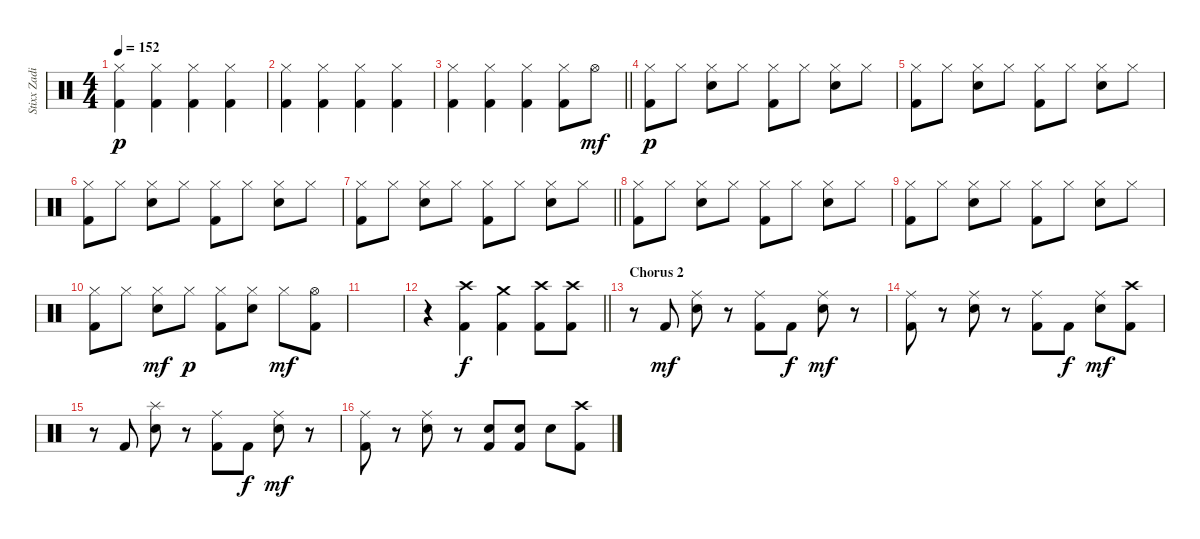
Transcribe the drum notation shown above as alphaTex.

\track ("Stixx Zadinia (Drums)" "Stixx Zadi") {instrument percussion}
\staff {score}
\articulation defaults
\ts (4 4)
\tempo 152
\clef neutral
\ks c
("Hi-Hat (closed)" "Kick (hit) 2").4{dy p} ("Hi-Hat (closed)" "Kick (hit) 2").4 ("Hi-Hat (closed)" "Kick (hit) 2").4 ("Hi-Hat (closed)" "Kick (hit) 2").4 |
("Hi-Hat (closed)" "Kick (hit) 2").4 ("Hi-Hat (closed)" "Kick (hit) 2").4 ("Hi-Hat (closed)" "Kick (hit) 2").4 ("Hi-Hat (closed)" "Kick (hit) 2").4 |
\barLineRight lightlight
("Hi-Hat (closed)" "Kick (hit) 2").4 ("Hi-Hat (closed)" "Kick (hit) 2").4 ("Hi-Hat (closed)" "Kick (hit) 2").4 ("Hi-Hat (closed)" "Kick (hit) 2").8 "Hi-Hat (open)".8{dy mf} |
\section ("" "")
("Hi-Hat (closed)" "Kick (hit) 2").8{dy p} "Hi-Hat (closed)".8 ("Hi-Hat (closed)" "Snare (hit) 2").8 "Hi-Hat (closed)".8 ("Hi-Hat (closed)" "Kick (hit) 2").8 "Hi-Hat (closed)".8 ("Hi-Hat (closed)" "Snare (hit) 2").8 "Hi-Hat (closed)".8 |
("Hi-Hat (closed)" "Kick (hit) 2").8 "Hi-Hat (closed)".8 ("Hi-Hat (closed)" "Snare (hit) 2").8 "Hi-Hat (closed)".8 ("Hi-Hat (closed)" "Kick (hit) 2").8 "Hi-Hat (closed)".8 ("Hi-Hat (closed)" "Snare (hit) 2").8 "Hi-Hat (closed)".8 |
("Hi-Hat (closed)" "Kick (hit) 2").8 "Hi-Hat (closed)".8 ("Hi-Hat (closed)" "Snare (hit) 2").8 "Hi-Hat (closed)".8 ("Hi-Hat (closed)" "Kick (hit) 2").8 "Hi-Hat (closed)".8 ("Hi-Hat (closed)" "Snare (hit) 2").8 "Hi-Hat (closed)".8 |
\barLineRight lightlight
("Hi-Hat (closed)" "Kick (hit) 2").8 "Hi-Hat (closed)".8 ("Hi-Hat (closed)" "Snare (hit) 2").8 "Hi-Hat (closed)".8 ("Hi-Hat (closed)" "Kick (hit) 2").8 "Hi-Hat (closed)".8 ("Hi-Hat (closed)" "Snare (hit) 2").8 "Hi-Hat (closed)".8 |
("Hi-Hat (closed)" "Kick (hit) 2").8 "Hi-Hat (closed)".8 ("Hi-Hat (closed)" "Snare (hit) 2").8 "Hi-Hat (closed)".8 ("Hi-Hat (closed)" "Kick (hit) 2").8 "Hi-Hat (closed)".8 ("Hi-Hat (closed)" "Snare (hit) 2").8 "Hi-Hat (closed)".8 |
("Hi-Hat (closed)" "Kick (hit) 2").8 "Hi-Hat (closed)".8 ("Hi-Hat (closed)" "Snare (hit) 2").8 "Hi-Hat (closed)".8 ("Hi-Hat (closed)" "Kick (hit) 2").8 "Hi-Hat (closed)".8 ("Hi-Hat (closed)" "Snare (hit) 2").8 "Hi-Hat (closed)".8 |
("Hi-Hat (closed)" "Kick (hit) 2").8 "Hi-Hat (closed)".8 ("Hi-Hat (closed)" "Snare (hit) 2").8{dy mf} "Hi-Hat (closed)".8{dy p} ("Hi-Hat (closed)" "Kick (hit) 2").8 ("Hi-Hat (closed)" "Snare (hit) 2").8 "Hi-Hat (closed)".8{dy mf} ("Hi-Hat (open)" "Kick (hit) 2").8 |
|
\barLineRight lightlight
r.4 ("Crash high (hit)" "Kick (hit) 2").4{dy f} ("Crash medium (hit)" "Kick (hit) 2").4 ("Crash high (hit)" "Kick (hit) 2").8 ("Crash high (hit)" "Kick (hit) 2").8 |
\section ("" "Chorus 2")
r.8 "Kick (hit) 2".8{dy mf} ("Ride (middle)" "Snare (hit) 2").8 r.8 ("Ride (middle)" "Kick (hit) 2").8 "Kick (hit) 2".8{dy f} ("Ride (middle)" "Snare (hit) 2").8{dy mf} r.8 |
("Ride (middle)" "Kick (hit) 2").8 r.8 ("Ride (middle)" "Snare (hit) 2").8 r.8 ("Ride (middle)" "Kick (hit) 2").8 "Kick (hit) 2".8{dy f} ("Ride (middle)" "Snare (hit) 2").8{dy mf} ("Crash high (hit)" "Kick (hit) 2").8 |
r.8 "Kick (hit) 2".8 ("Splash (hit)" "Snare (hit) 2").8 r.8 ("Ride (middle)" "Kick (hit) 2").8 "Kick (hit) 2".8{dy f} ("Ride (middle)" "Snare (hit) 2").8{dy mf} r.8 |
("Ride (middle)" "Kick (hit) 2").8 r.8 ("Ride (middle)" "Snare (hit) 2").8 r.8 ("Snare (hit) 2" "Kick (hit) 2").8 ("Snare (hit) 2" "Kick (hit) 2").8 "Snare (hit) 2".8 ("Crash high (hit)" "Kick (hit) 2").8
